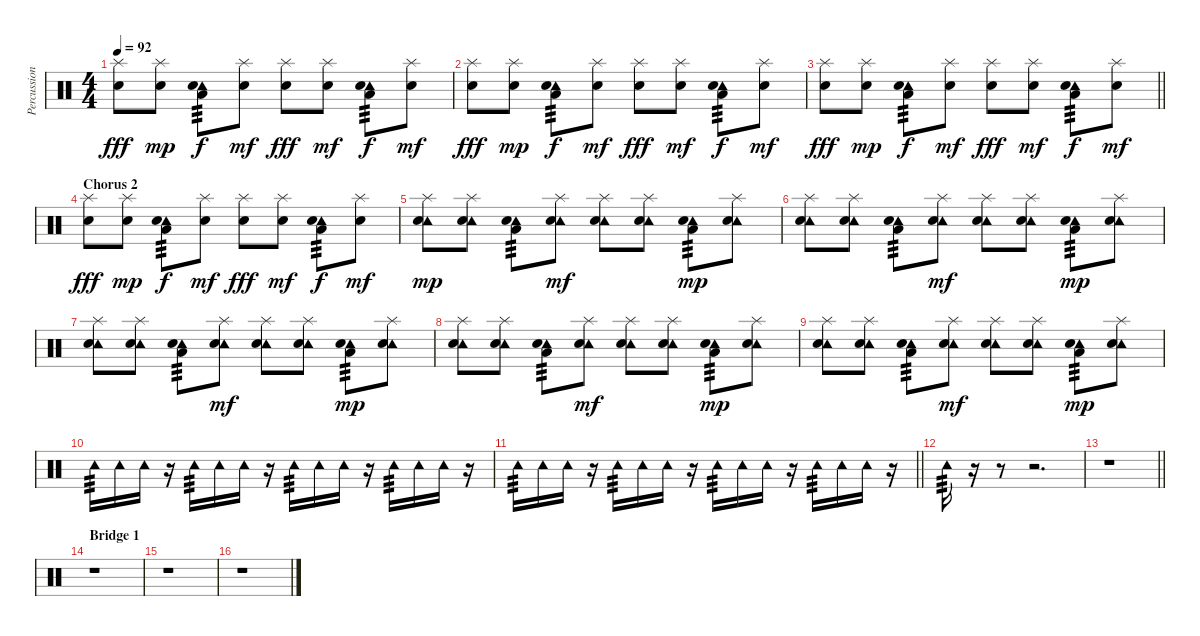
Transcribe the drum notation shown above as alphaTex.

\track ("Percussion" "Percussion") {instrument percussion}
\staff {score}
\articulation defaults
\ts (4 4)
\tempo 92
\clef neutral
\ks c
("Splash (hit)" "Snare (hit) 2").8{dy fff} ("Splash (hit)" "Snare (hit) 2").8{dy mp} ("Tambourine (hit)" "Low Floor Tom (hit)" "Snare (hit) 2").8{tp 3 dy f} ("Splash (hit)" "Snare (hit) 2").8{dy mf} ("Splash (hit)" "Snare (hit) 2").8{dy fff} ("Splash (hit)" "Snare (hit) 2").8{dy mf} ("Tambourine (hit)" "Low Floor Tom (hit)" "Snare (hit) 2").8{tp 3 dy f} ("Splash (hit)" "Snare (hit) 2").8{dy mf} |
("Splash (hit)" "Snare (hit) 2").8{dy fff} ("Splash (hit)" "Snare (hit) 2").8{dy mp} ("Tambourine (hit)" "Low Floor Tom (hit)" "Snare (hit) 2").8{tp 3 dy f} ("Splash (hit)" "Snare (hit) 2").8{dy mf} ("Splash (hit)" "Snare (hit) 2").8{dy fff} ("Splash (hit)" "Snare (hit) 2").8{dy mf} ("Tambourine (hit)" "Low Floor Tom (hit)" "Snare (hit) 2").8{tp 3 dy f} ("Splash (hit)" "Snare (hit) 2").8{dy mf} |
\barLineRight lightlight
("Splash (hit)" "Snare (hit) 2").8{dy fff} ("Splash (hit)" "Snare (hit) 2").8{dy mp} ("Tambourine (hit)" "Low Floor Tom (hit)" "Snare (hit) 2").8{tp 3 dy f} ("Splash (hit)" "Snare (hit) 2").8{dy mf} ("Splash (hit)" "Snare (hit) 2").8{dy fff} ("Splash (hit)" "Snare (hit) 2").8{dy mf} ("Tambourine (hit)" "Low Floor Tom (hit)" "Snare (hit) 2").8{tp 3 dy f} ("Splash (hit)" "Snare (hit) 2").8{dy mf} |
\section ("" "Chorus 2")
("Splash (hit)" "Snare (hit) 2").8{dy fff} ("Splash (hit)" "Snare (hit) 2").8{dy mp} ("Tambourine (hit)" "Low Floor Tom (hit)" "Snare (hit) 2").8{tp 3 dy f} ("Splash (hit)" "Snare (hit) 2").8{dy mf} ("Splash (hit)" "Snare (hit) 2").8{dy fff} ("Splash (hit)" "Snare (hit) 2").8{dy mf} ("Tambourine (hit)" "Low Floor Tom (hit)" "Snare (hit) 2").8{tp 3 dy f} ("Splash (hit)" "Snare (hit) 2").8{dy mf} |
("Tambourine (hit)" "Splash (hit)" "Snare (hit) 2").8{dy mp} ("Tambourine (hit)" "Splash (hit)" "Snare (hit) 2").8 ("Tambourine (hit)" "Low Floor Tom (hit)" "Snare (hit) 2").8{tp 3} ("Tambourine (hit)" "Splash (hit)" "Snare (hit) 2").8{dy mf} ("Tambourine (hit)" "Splash (hit)" "Snare (hit) 2").8 ("Tambourine (hit)" "Splash (hit)" "Snare (hit) 2").8 ("Tambourine (hit)" "Low Floor Tom (hit)" "Snare (hit) 2").8{tp 3 dy mp} ("Tambourine (hit)" "Splash (hit)" "Snare (hit) 2").8 |
("Tambourine (hit)" "Splash (hit)" "Snare (hit) 2").8 ("Tambourine (hit)" "Splash (hit)" "Snare (hit) 2").8 ("Tambourine (hit)" "Low Floor Tom (hit)" "Snare (hit) 2").8{tp 3} ("Tambourine (hit)" "Splash (hit)" "Snare (hit) 2").8{dy mf} ("Tambourine (hit)" "Splash (hit)" "Snare (hit) 2").8 ("Tambourine (hit)" "Splash (hit)" "Snare (hit) 2").8 ("Tambourine (hit)" "Low Floor Tom (hit)" "Snare (hit) 2").8{tp 3 dy mp} ("Tambourine (hit)" "Splash (hit)" "Snare (hit) 2").8 |
("Tambourine (hit)" "Splash (hit)" "Snare (hit) 2").8 ("Tambourine (hit)" "Splash (hit)" "Snare (hit) 2").8 ("Tambourine (hit)" "Low Floor Tom (hit)" "Snare (hit) 2").8{tp 3} ("Tambourine (hit)" "Splash (hit)" "Snare (hit) 2").8{dy mf} ("Tambourine (hit)" "Splash (hit)" "Snare (hit) 2").8 ("Tambourine (hit)" "Splash (hit)" "Snare (hit) 2").8 ("Tambourine (hit)" "Low Floor Tom (hit)" "Snare (hit) 2").8{tp 3 dy mp} ("Tambourine (hit)" "Splash (hit)" "Snare (hit) 2").8 |
("Tambourine (hit)" "Splash (hit)" "Snare (hit) 2").8 ("Tambourine (hit)" "Splash (hit)" "Snare (hit) 2").8 ("Tambourine (hit)" "Low Floor Tom (hit)" "Snare (hit) 2").8{tp 3} ("Tambourine (hit)" "Splash (hit)" "Snare (hit) 2").8{dy mf} ("Tambourine (hit)" "Splash (hit)" "Snare (hit) 2").8 ("Tambourine (hit)" "Splash (hit)" "Snare (hit) 2").8 ("Tambourine (hit)" "Low Floor Tom (hit)" "Snare (hit) 2").8{tp 3 dy mp} ("Tambourine (hit)" "Splash (hit)" "Snare (hit) 2").8 |
("Tambourine (hit)" "Splash (hit)" "Snare (hit) 2").8 ("Tambourine (hit)" "Splash (hit)" "Snare (hit) 2").8 ("Tambourine (hit)" "Low Floor Tom (hit)" "Snare (hit) 2").8{tp 3} ("Tambourine (hit)" "Splash (hit)" "Snare (hit) 2").8{dy mf} ("Tambourine (hit)" "Splash (hit)" "Snare (hit) 2").8 ("Tambourine (hit)" "Splash (hit)" "Snare (hit) 2").8 ("Tambourine (hit)" "Low Floor Tom (hit)" "Snare (hit) 2").8{tp 3 dy mp} ("Tambourine (hit)" "Splash (hit)" "Snare (hit) 2").8 |
"Tambourine (hit)".16{tp 3} "Tambourine (hit)".16 "Tambourine (hit)".16 r.16 "Tambourine (hit)".16{tp 3} "Tambourine (hit)".16 "Tambourine (hit)".16 r.16 "Tambourine (hit)".16{tp 3} "Tambourine (hit)".16 "Tambourine (hit)".16 r.16 "Tambourine (hit)".16{tp 3} "Tambourine (hit)".16 "Tambourine (hit)".16 r.16 |
\barLineRight lightlight "Tambourine (hit)".16{tp 3} "Tambourine (hit)".16 "Tambourine (hit)".16
r.16 "Tambourine (hit)".16{tp 3} "Tambourine (hit)".16 "Tambourine (hit)".16 r.16 "Tambourine (hit)".16{tp 3} "Tambourine (hit)".16 "Tambourine (hit)".16 r.16 "Tambourine (hit)".16{tp 3} "Tambourine (hit)".16 "Tambourine (hit)".16 r.16 |
"Tambourine (hit)".16{tp 3} r.16 r.8 r.2{d} |
\barLineRight lightlight
r.1 |
\section ("" "Bridge 1")
r.1 |
r.1 |
r.1
